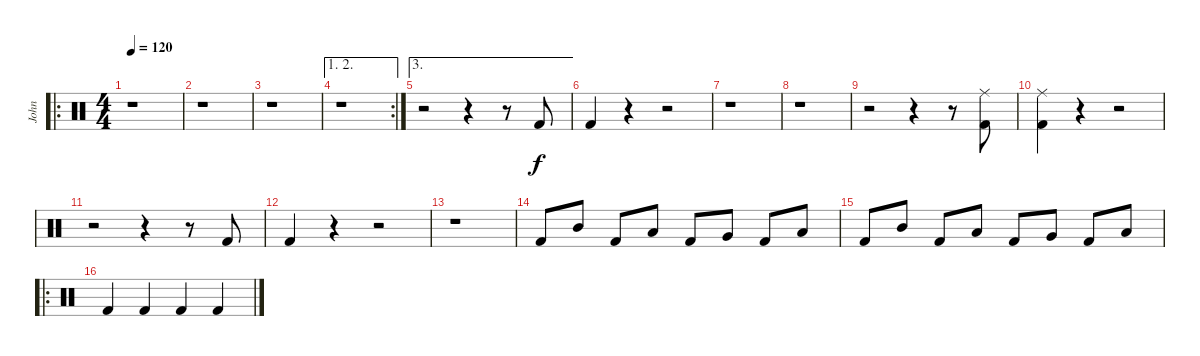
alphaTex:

\track ("John" "John") {instrument percussion}
\staff {score}
\articulation defaults
\ro
\ts (4 4)
\tempo 120
\clef neutral
\ks c
r.1{dy f} |
r.1 |
r.1 |
\ae (1 2)
\rc 2
r.1 |
\ae 3
r.2 r.4 r.8 "Kick (hit) 2".8 |
"Kick (hit) 2".4 r.4 r.2 |
r.1 |
r.1 |
r.2 r.4 r.8 ("Ride (middle)" "Kick (hit) 2").8 |
("Ride (middle)" "Kick (hit) 2").4 r.4 r.2 |
r.2 r.4 r.8 "Kick (hit) 2".8 |
"Kick (hit) 2".4 r.4 r.2 |
r.1 |
"Kick (hit) 2".8 "Mid Tom (hit)".8 "Kick (hit) 2".8 "Low Tom (hit)".8 "Kick (hit) 2".8 "Very Low Tom (hit)".8 "Kick (hit) 2".8 "Low Floor Tom (hit)".8 |
"Kick (hit) 2".8 "Mid Tom (hit)".8 "Kick (hit) 2".8 "Low Tom (hit)".8 "Kick (hit) 2".8 "Very Low Tom (hit)".8 "Kick (hit) 2".8 "Low Floor Tom (hit)".8 |
\ro "Kick (hit) 2".4 "Kick (hit) 2".4 "Kick (hit) 2".4 "Kick (hit) 2".4
